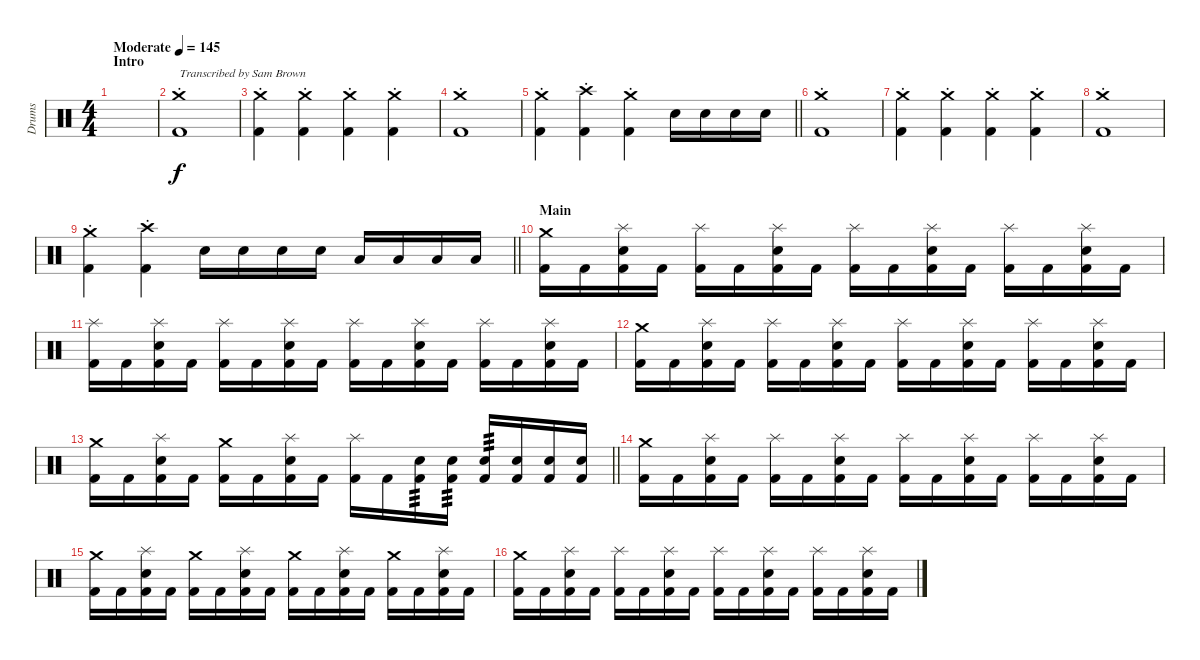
\track ("Drums" "Drums") {instrument percussion}
\staff {score}
\articulation defaults
\ts (4 4)
\section ("" "Intro")
\tempo (145 "Moderate")
\clef neutral
\ks c
|
("Kick (hit) 2" "Crash medium (hit)"{st}).1{txt "Transcribed by Sam Brown"} |
("Kick (hit) 2" "Crash medium (hit)"{st}).4 ("Kick (hit) 2" "Crash medium (hit)"{st}).4 ("Kick (hit) 2" "Crash medium (hit)"{st}).4 ("Kick (hit) 2" "Crash medium (hit)"{st}).4 |
("Kick (hit) 2" "Crash medium (hit)"{st}).1 |
\barLineRight lightlight
("Kick (hit) 2" "Crash medium (hit)"{st}).4 ("Kick (hit) 2" "Crash high (hit)"{st}).4 ("Kick (hit) 2" "Crash medium (hit)"{st}).4 "Snare (hit) 2".16 "Snare (hit) 2".16 "Snare (hit) 2".16 "Snare (hit) 2".16 |
\section ("" "")
("Kick (hit) 2" "Crash medium (hit)"{st}).1 |
("Kick (hit) 2" "Crash medium (hit)"{st}).4 ("Kick (hit) 2" "Crash medium (hit)"{st}).4 ("Kick (hit) 2" "Crash medium (hit)"{st}).4 ("Kick (hit) 2" "Crash medium (hit)"{st}).4 |
("Kick (hit) 2" "Crash medium (hit)"{st}).1 |
\barLineRight lightlight
("Kick (hit) 2" "Crash medium (hit)"{st}).4 ("Kick (hit) 2" "Crash high (hit)"{st}).4 "Snare (hit) 2".16 "Snare (hit) 2".16 "Snare (hit) 2".16 "Snare (hit) 2".16 "Low Tom (hit)".16 "Low Tom (hit)".16 "Low Tom (hit)".16 "Low Tom (hit)".16 |
\section ("" "Main")
("Kick (hit) 2" "Crash medium (hit)").16 "Kick (hit) 2".16 ("Kick (hit) 2" "Snare (hit) 2" "Splash (hit)").16 "Kick (hit) 2".16 ("Kick (hit) 2" "Splash (hit)").16 "Kick (hit) 2".16 ("Kick (hit) 2" "Snare (hit) 2" "Splash (hit)").16 "Kick (hit) 2".16 ("Kick (hit) 2" "Splash (hit)").16 "Kick (hit) 2".16 ("Kick (hit) 2" "Snare (hit) 2" "Splash (hit)").16 "Kick (hit) 2".16 ("Kick (hit) 2" "Splash (hit)").16 "Kick (hit) 2".16 ("Kick (hit) 2" "Snare (hit) 2" "Splash (hit)").16 "Kick (hit) 2".16 |
("Kick (hit) 2" "Splash (hit)").16 "Kick (hit) 2".16 ("Kick (hit) 2" "Snare (hit) 2" "Splash (hit)").16 "Kick (hit) 2".16 ("Kick (hit) 2" "Splash (hit)").16 "Kick (hit) 2".16 ("Kick (hit) 2" "Snare (hit) 2" "Splash (hit)").16 "Kick (hit) 2".16 ("Kick (hit) 2" "Splash (hit)").16 "Kick (hit) 2".16 ("Kick (hit) 2" "Snare (hit) 2" "Splash (hit)").16 "Kick (hit) 2".16 ("Kick (hit) 2" "Splash (hit)").16 "Kick (hit) 2".16 ("Kick (hit) 2" "Snare (hit) 2" "Splash (hit)").16 "Kick (hit) 2".16 |
("Kick (hit) 2" "Crash medium (hit)").16 "Kick (hit) 2".16 ("Kick (hit) 2" "Snare (hit) 2" "Splash (hit)").16 "Kick (hit) 2".16 ("Kick (hit) 2" "Splash (hit)").16 "Kick (hit) 2".16 ("Kick (hit) 2" "Snare (hit) 2" "Splash (hit)").16 "Kick (hit) 2".16 ("Kick (hit) 2" "Splash (hit)").16 "Kick (hit) 2".16 ("Kick (hit) 2" "Snare (hit) 2" "Splash (hit)").16 "Kick (hit) 2".16 ("Kick (hit) 2" "Splash (hit)").16 "Kick (hit) 2".16 ("Kick (hit) 2" "Snare (hit) 2" "Splash (hit)").16 "Kick (hit) 2".16 |
\barLineRight lightlight
("Kick (hit) 2" "Crash medium (hit)").16 "Kick (hit) 2".16 ("Kick (hit) 2" "Snare (hit) 2" "Splash (hit)").16 "Kick (hit) 2".16 ("Kick (hit) 2" "Crash medium (hit)").16 "Kick (hit) 2".16 ("Kick (hit) 2" "Snare (hit) 2" "Splash (hit)").16 "Kick (hit) 2".16 ("Kick (hit) 2" "Splash (hit)").16 "Kick (hit) 2".16 ("Kick (hit) 2" "Snare (hit) 2").16{tp 3} ("Kick (hit) 2" "Snare (hit) 2").16{tp 3} ("Kick (hit) 2" "Snare (hit) 2").16{tp 3} ("Kick (hit) 2" "Snare (hit) 2").16 ("Kick (hit) 2" "Snare (hit) 2").16 ("Kick (hit) 2" "Snare (hit) 2").16 |
\section ("" "")
("Kick (hit) 2" "Crash medium (hit)").16 "Kick (hit) 2".16 ("Kick (hit) 2" "Snare (hit) 2" "Splash (hit)").16 "Kick (hit) 2".16 ("Kick (hit) 2" "Splash (hit)").16 "Kick (hit) 2".16 ("Kick (hit) 2" "Snare (hit) 2" "Splash (hit)").16 "Kick (hit) 2".16 ("Kick (hit) 2" "Splash (hit)").16 "Kick (hit) 2".16 ("Kick (hit) 2" "Snare (hit) 2" "Splash (hit)").16 "Kick (hit) 2".16 ("Kick (hit) 2" "Splash (hit)").16 "Kick (hit) 2".16 ("Kick (hit) 2" "Snare (hit) 2" "Splash (hit)").16 "Kick (hit) 2".16 |
("Kick (hit) 2" "Crash medium (hit)").16 "Kick (hit) 2".16 ("Kick (hit) 2" "Snare (hit) 2" "Splash (hit)").16 "Kick (hit) 2".16 ("Kick (hit) 2" "Crash medium (hit)").16 "Kick (hit) 2".16 ("Kick (hit) 2" "Snare (hit) 2" "Splash (hit)").16 "Kick (hit) 2".16 ("Kick (hit) 2" "Crash medium (hit)").16 "Kick (hit) 2".16 ("Kick (hit) 2" "Snare (hit) 2" "Splash (hit)").16 "Kick (hit) 2".16 ("Kick (hit) 2" "Crash medium (hit)").16 "Kick (hit) 2".16 ("Kick (hit) 2" "Snare (hit) 2" "Splash (hit)").16 "Kick (hit) 2".16 |
("Kick (hit) 2" "Crash medium (hit)").16 "Kick (hit) 2".16 ("Kick (hit) 2" "Snare (hit) 2" "Splash (hit)").16 "Kick (hit) 2".16 ("Kick (hit) 2" "Splash (hit)").16 "Kick (hit) 2".16 ("Kick (hit) 2" "Snare (hit) 2" "Splash (hit)").16 "Kick (hit) 2".16 ("Kick (hit) 2" "Splash (hit)").16 "Kick (hit) 2".16 ("Kick (hit) 2" "Snare (hit) 2" "Splash (hit)").16 "Kick (hit) 2".16 ("Kick (hit) 2" "Splash (hit)").16 "Kick (hit) 2".16 ("Kick (hit) 2" "Snare (hit) 2" "Splash (hit)").16 "Kick (hit) 2".16
